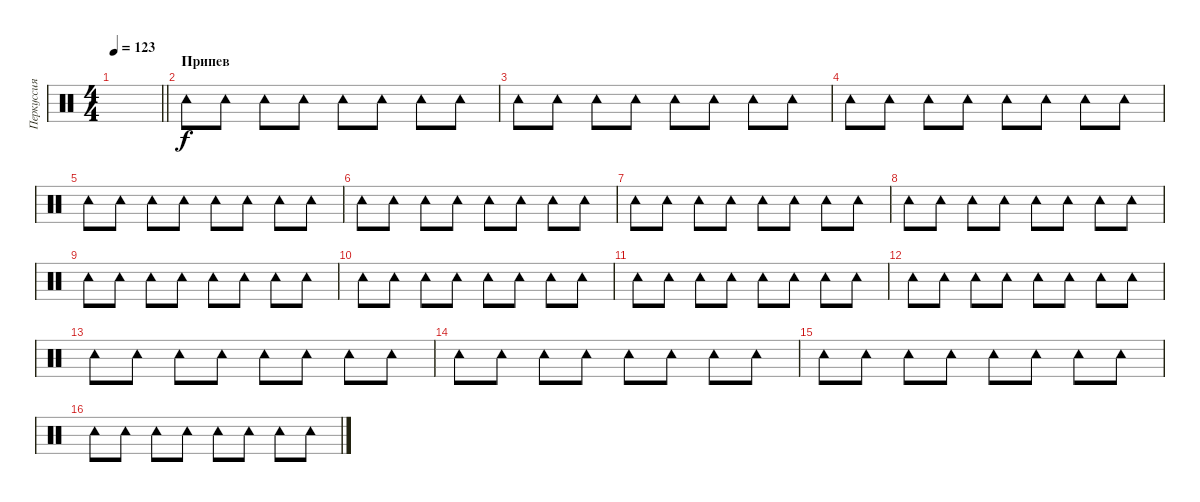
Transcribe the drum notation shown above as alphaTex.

\track ("Перкуссия 1" "Перкуссия ") {instrument percussion}
\staff {score}
\articulation defaults
\ts (4 4)
\tempo 123
\clef neutral
\barLineRight lightlight
\ks c
|
\section ("" "Припев")
"Tambourine (hit)".8 "Tambourine (hit)".8 "Tambourine (hit)".8 "Tambourine (hit)".8 "Tambourine (hit)".8 "Tambourine (hit)".8 "Tambourine (hit)".8 "Tambourine (hit)".8 |
"Tambourine (hit)".8 "Tambourine (hit)".8 "Tambourine (hit)".8 "Tambourine (hit)".8 "Tambourine (hit)".8 "Tambourine (hit)".8 "Tambourine (hit)".8 "Tambourine (hit)".8 |
"Tambourine (hit)".8 "Tambourine (hit)".8 "Tambourine (hit)".8 "Tambourine (hit)".8 "Tambourine (hit)".8 "Tambourine (hit)".8 "Tambourine (hit)".8 "Tambourine (hit)".8 |
"Tambourine (hit)".8 "Tambourine (hit)".8 "Tambourine (hit)".8 "Tambourine (hit)".8 "Tambourine (hit)".8 "Tambourine (hit)".8 "Tambourine (hit)".8 "Tambourine (hit)".8 |
"Tambourine (hit)".8 "Tambourine (hit)".8 "Tambourine (hit)".8 "Tambourine (hit)".8 "Tambourine (hit)".8 "Tambourine (hit)".8 "Tambourine (hit)".8 "Tambourine (hit)".8 |
"Tambourine (hit)".8 "Tambourine (hit)".8 "Tambourine (hit)".8 "Tambourine (hit)".8 "Tambourine (hit)".8 "Tambourine (hit)".8 "Tambourine (hit)".8 "Tambourine (hit)".8 |
"Tambourine (hit)".8 "Tambourine (hit)".8 "Tambourine (hit)".8 "Tambourine (hit)".8 "Tambourine (hit)".8 "Tambourine (hit)".8 "Tambourine (hit)".8 "Tambourine (hit)".8 |
"Tambourine (hit)".8 "Tambourine (hit)".8 "Tambourine (hit)".8 "Tambourine (hit)".8 "Tambourine (hit)".8 "Tambourine (hit)".8 "Tambourine (hit)".8 "Tambourine (hit)".8 |
"Tambourine (hit)".8 "Tambourine (hit)".8 "Tambourine (hit)".8 "Tambourine (hit)".8 "Tambourine (hit)".8 "Tambourine (hit)".8 "Tambourine (hit)".8 "Tambourine (hit)".8 |
"Tambourine (hit)".8 "Tambourine (hit)".8 "Tambourine (hit)".8 "Tambourine (hit)".8 "Tambourine (hit)".8 "Tambourine (hit)".8 "Tambourine (hit)".8 "Tambourine (hit)".8 |
"Tambourine (hit)".8 "Tambourine (hit)".8 "Tambourine (hit)".8 "Tambourine (hit)".8 "Tambourine (hit)".8 "Tambourine (hit)".8 "Tambourine (hit)".8 "Tambourine (hit)".8 |
"Tambourine (hit)".8 "Tambourine (hit)".8 "Tambourine (hit)".8 "Tambourine (hit)".8 "Tambourine (hit)".8 "Tambourine (hit)".8 "Tambourine (hit)".8 "Tambourine (hit)".8 |
"Tambourine (hit)".8 "Tambourine (hit)".8 "Tambourine (hit)".8 "Tambourine (hit)".8 "Tambourine (hit)".8 "Tambourine (hit)".8 "Tambourine (hit)".8 "Tambourine (hit)".8 |
"Tambourine (hit)".8 "Tambourine (hit)".8 "Tambourine (hit)".8 "Tambourine (hit)".8 "Tambourine (hit)".8 "Tambourine (hit)".8 "Tambourine (hit)".8 "Tambourine (hit)".8 |
"Tambourine (hit)".8 "Tambourine (hit)".8 "Tambourine (hit)".8 "Tambourine (hit)".8 "Tambourine (hit)".8 "Tambourine (hit)".8 "Tambourine (hit)".8 "Tambourine (hit)".8
